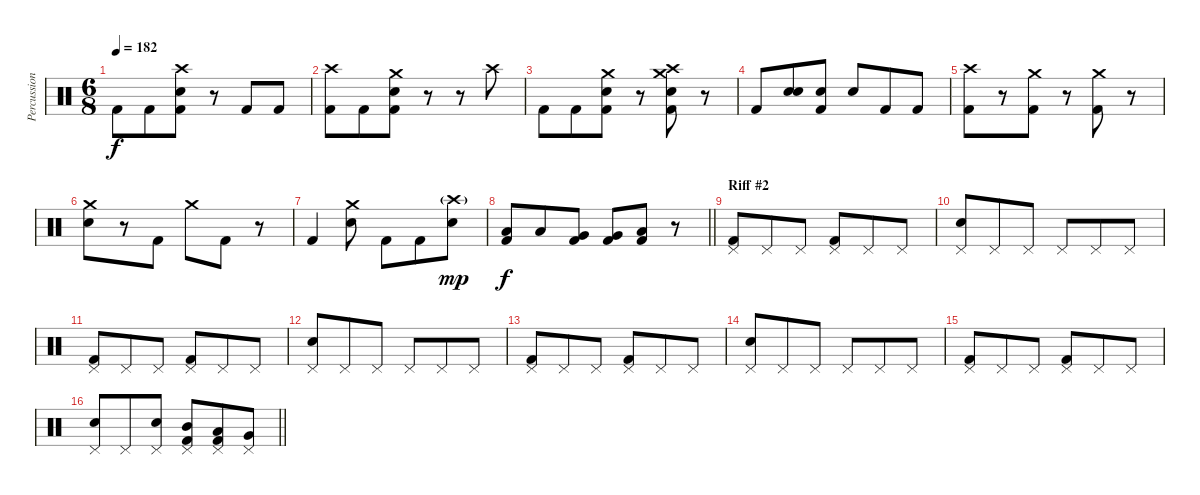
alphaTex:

\track ("Percussion" "Percussion") {instrument percussion}
\staff {score}
\articulation defaults
\ts (6 8)
\tempo 182
\clef neutral
\ks c "Kick (hit) 2".8{dy f} "Kick (hit) 2".8
("Kick (hit) 2" "Snare (hit) 2" "Crash high (hit)").8 r.8 "Kick (hit) 2".8 "Kick (hit) 2".8 |
("Kick (hit) 2" "Crash high (hit)").8 "Kick (hit) 2".8 ("Kick (hit) 2" "Snare (hit) 2" "Crash medium (hit)").8 r.8 r.8 "Crash high (hit)".8 |
"Kick (hit) 2".8 "Kick (hit) 2".8 ("Kick (hit) 2" "Snare (hit) 2" "Crash medium (hit)").8 r.8 ("Kick (hit) 2" "Snare (hit) 2" "Crash high (hit)" "Crash medium (hit)").8 r.8 |
"Kick (hit) 2".8 ("Snare (hit) 2" "Snare (hit) 2").8 ("Kick (hit) 2" "Snare (hit) 2").8 "Snare (hit) 2".8 "Kick (hit) 2".8 "Kick (hit) 2".8 |
("Kick (hit) 2" "Crash high (hit)").8 r.8 ("Kick (hit) 2" "Crash medium (hit)").8 r.8 ("Kick (hit) 2" "Crash medium (hit)").8 r.8 |
("Snare (hit) 2" "Crash medium (hit)").8 r.8 "Kick (hit) 2".8 "Crash medium (hit)".8 "Kick (hit) 2".8 r.8 |
"Kick (hit) 2".4 ("Snare (hit) 2" "Crash medium (hit)").8 "Kick (hit) 2".8 "Kick (hit) 2".8 ("Snare (hit) 2" "Crash high (hit)"{g}).8{dy mp} |
\barLineRight lightlight
("Kick (hit) 2" "Low Tom (hit)").8{dy f} "Low Tom (hit)".8 ("Kick (hit) 2" "Very Low Tom (hit)").8 ("Kick (hit) 2" "Very Low Tom (hit)").8 ("Kick (hit) 2" "Low Floor Tom (hit)").8 r.8 |
\section ("" "Riff #2")
("Kick (hit) 2" "Pedal Hi-Hat (hit)").8 "Pedal Hi-Hat (hit)".8 "Pedal Hi-Hat (hit)".8 ("Kick (hit) 2" "Pedal Hi-Hat (hit)").8 "Pedal Hi-Hat (hit)".8 "Pedal Hi-Hat (hit)".8 |
("Snare (hit) 2" "Pedal Hi-Hat (hit)").8 "Pedal Hi-Hat (hit)".8 "Pedal Hi-Hat (hit)".8 "Pedal Hi-Hat (hit)".8 "Pedal Hi-Hat (hit)".8 "Pedal Hi-Hat (hit)".8 |
("Kick (hit) 2" "Pedal Hi-Hat (hit)").8 "Pedal Hi-Hat (hit)".8 "Pedal Hi-Hat (hit)".8 ("Kick (hit) 2" "Pedal Hi-Hat (hit)").8 "Pedal Hi-Hat (hit)".8 "Pedal Hi-Hat (hit)".8 |
("Snare (hit) 2" "Pedal Hi-Hat (hit)").8 "Pedal Hi-Hat (hit)".8 "Pedal Hi-Hat (hit)".8 "Pedal Hi-Hat (hit)".8 "Pedal Hi-Hat (hit)".8 "Pedal Hi-Hat (hit)".8 |
("Kick (hit) 2" "Pedal Hi-Hat (hit)").8 "Pedal Hi-Hat (hit)".8 "Pedal Hi-Hat (hit)".8 ("Kick (hit) 2" "Pedal Hi-Hat (hit)").8 "Pedal Hi-Hat (hit)".8 "Pedal Hi-Hat (hit)".8 |
("Snare (hit) 2" "Pedal Hi-Hat (hit)").8 "Pedal Hi-Hat (hit)".8 "Pedal Hi-Hat (hit)".8 "Pedal Hi-Hat (hit)".8 "Pedal Hi-Hat (hit)".8 "Pedal Hi-Hat (hit)".8 |
("Kick (hit) 2" "Pedal Hi-Hat (hit)").8 "Pedal Hi-Hat (hit)".8 "Pedal Hi-Hat (hit)".8 ("Kick (hit) 2" "Pedal Hi-Hat (hit)").8 "Pedal Hi-Hat (hit)".8 "Pedal Hi-Hat (hit)".8 |
\barLineRight lightlight
("Snare (hit) 2" "Pedal Hi-Hat (hit)").8 "Pedal Hi-Hat (hit)".8 ("Snare (hit) 2" "Pedal Hi-Hat (hit)").8 ("Kick (hit) 2" "Mid Tom (hit)" "Pedal Hi-Hat (hit)").8 ("Kick (hit) 2" "Low Tom (hit)" "Pedal Hi-Hat (hit)").8 ("Very Low Tom (hit)" "Pedal Hi-Hat (hit)").8
